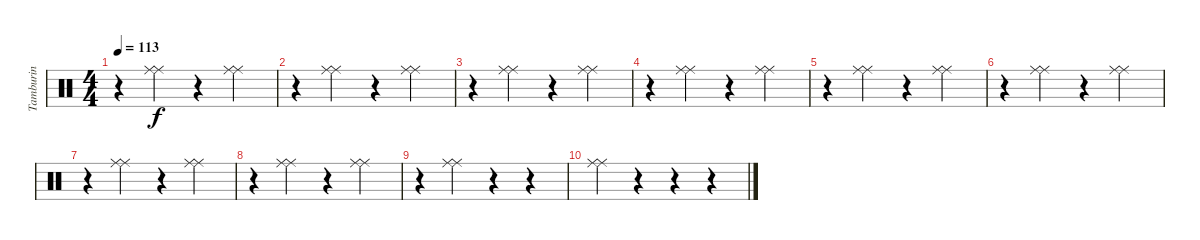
\track ("Tamburin" "Tamburin") {instrument percussion}
\staff {score}
\articulation defaults
\ts (4 4)
\tempo 113
\clef neutral
\ks c
r.4{dy f} ("Ride (middle)" "Ride (middle)").4 r.4 ("Ride (middle)" "Ride (middle)").4 |
r.4 ("Ride (middle)" "Ride (middle)").4 r.4 ("Ride (middle)" "Ride (middle)").4 |
r.4 ("Ride (middle)" "Ride (middle)").4 r.4 ("Ride (middle)" "Ride (middle)").4 |
r.4 ("Ride (middle)" "Ride (middle)").4 r.4 ("Ride (middle)" "Ride (middle)").4 |
r.4 ("Ride (middle)" "Ride (middle)").4 r.4 ("Ride (middle)" "Ride (middle)").4 |
r.4 ("Ride (middle)" "Ride (middle)").4 r.4 ("Ride (middle)" "Ride (middle)").4 |
r.4 ("Ride (middle)" "Ride (middle)").4 r.4 ("Ride (middle)" "Ride (middle)").4 |
r.4 ("Ride (middle)" "Ride (middle)").4 r.4 ("Ride (middle)" "Ride (middle)").4 |
r.4 ("Ride (middle)" "Ride (middle)").4 r.4 r.4 |
("Ride (middle)" "Ride (middle)").4 r.4 r.4 r.4
